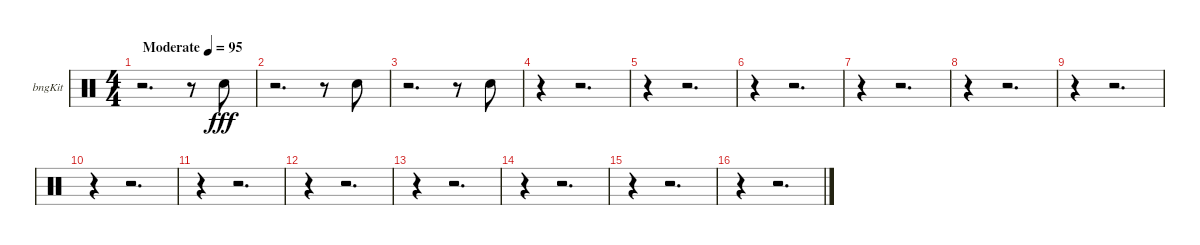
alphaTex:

\bracketExtendMode groupsimilarinstruments
\firstSystemTrackNameOrientation horizontal
\otherSystemsTrackNameOrientation horizontal
\track ("Bongos" "bngKit") {instrument percussion}
\staff {score}
\articulation defaults
\ts (4 4)
\beaming (8 2 2 2 2)
\tempo (95 "Moderate")
\clef neutral
\ks c
r.2{d dy fff} r.8 "Snare (hit) 2".8 |
r.2{d} r.8 "Snare (hit) 2".8 |
r.2{d} r.8 "Snare (hit) 2".8 |
r.4 r.2{d} |
r.4 r.2{d} |
r.4 r.2{d} |
r.4 r.2{d} |
r.4 r.2{d} |
r.4 r.2{d} |
r.4 r.2{d} |
r.4 r.2{d} |
r.4 r.2{d} |
r.4 r.2{d} |
r.4 r.2{d} |
r.4 r.2{d} |
r.4 r.2{d}
